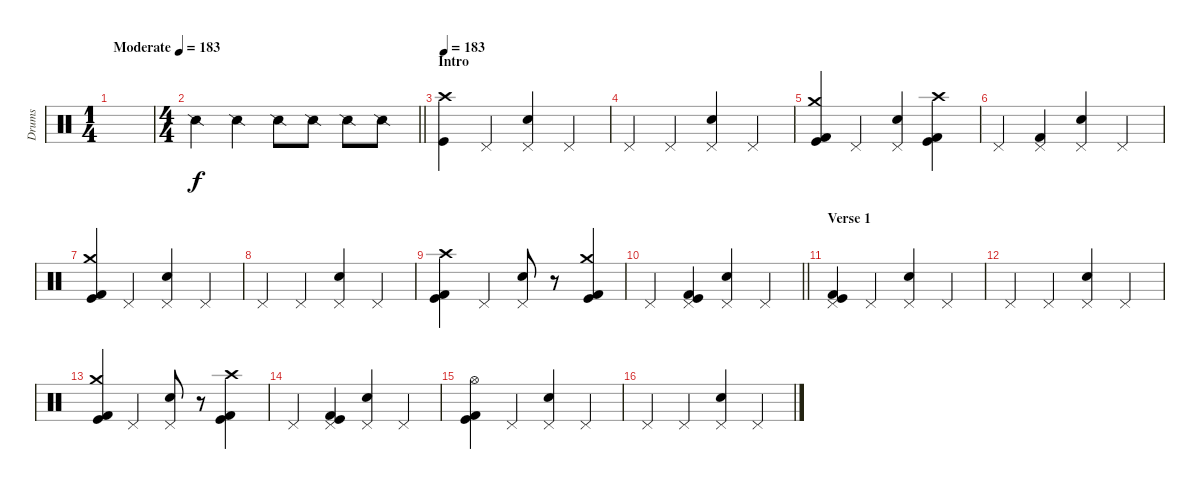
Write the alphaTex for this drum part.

\track ("Drums" "Drums") {instrument percussion}
\staff
\articulation defaults
\ts (1 4)
\tempo (183 "Moderate")
\clef neutral
\ks c
|
\ts (4 4)
\barLineRight lightlight "Snare (side stick) 2".4 "Snare (side stick) 2".4 "Snare (side stick) 2".8 "Snare (side stick) 2".8 "Snare (side stick) 2".8 "Snare (side stick) 2".8
|
\section ("" "Intro")
\tempo 183
("Crash high (hit)" "Kick (hit)").4 "Pedal Hi-Hat (hit)".4 ("Pedal Hi-Hat (hit)" "Snare (hit) 2").4 "Pedal Hi-Hat (hit)".4 |
"Pedal Hi-Hat (hit)".4 "Pedal Hi-Hat (hit)".4 ("Pedal Hi-Hat (hit)" "Snare (hit) 2").4 "Pedal Hi-Hat (hit)".4 |
("Crash medium (hit)" "Kick (hit)" "Kick (hit) 2").4 "Pedal Hi-Hat (hit)".4 ("Pedal Hi-Hat (hit)" "Snare (hit) 2").4 ("Crash high (hit)" "Kick (hit)" "Kick (hit) 2").4 |
"Pedal Hi-Hat (hit)".4 ("Pedal Hi-Hat (hit)" "Kick (hit) 2").4 ("Pedal Hi-Hat (hit)" "Snare (hit) 2").4 "Pedal Hi-Hat (hit)".4 |
("Crash medium (hit)" "Kick (hit)" "Kick (hit) 2").4 "Pedal Hi-Hat (hit)".4 ("Pedal Hi-Hat (hit)" "Snare (hit) 2").4 "Pedal Hi-Hat (hit)".4 |
"Pedal Hi-Hat (hit)".4 "Pedal Hi-Hat (hit)".4 ("Pedal Hi-Hat (hit)" "Snare (hit) 2").4 "Pedal Hi-Hat (hit)".4 |
("Crash high (hit)" "Kick (hit)" "Kick (hit) 2").4 "Pedal Hi-Hat (hit)".4 ("Pedal Hi-Hat (hit)" "Snare (hit) 2").8 r.8 ("Crash medium (hit)" "Kick (hit)" "Kick (hit) 2").4 |
\barLineRight lightlight "Pedal Hi-Hat (hit)".4
("Pedal Hi-Hat (hit)" "Kick (hit)" "Kick (hit) 2").4 ("Pedal Hi-Hat (hit)" "Snare (hit) 2").4 "Pedal Hi-Hat (hit)".4 |
\section ("" "Verse 1")
("Pedal Hi-Hat (hit)" "Kick (hit)" "Kick (hit) 2").4 "Pedal Hi-Hat (hit)".4 ("Pedal Hi-Hat (hit)" "Snare (hit) 2").4 "Pedal Hi-Hat (hit)".4 |
"Pedal Hi-Hat (hit)".4 "Pedal Hi-Hat (hit)".4 ("Pedal Hi-Hat (hit)" "Snare (hit) 2").4 "Pedal Hi-Hat (hit)".4 |
("Crash medium (hit)" "Kick (hit)" "Kick (hit) 2").4 "Pedal Hi-Hat (hit)".4 ("Pedal Hi-Hat (hit)" "Snare (hit) 2").8 r.8 ("Crash high (hit)" "Kick (hit)" "Kick (hit) 2").4 |
"Pedal Hi-Hat (hit)".4 ("Pedal Hi-Hat (hit)" "Kick (hit)" "Kick (hit) 2").4 ("Pedal Hi-Hat (hit)" "Snare (hit) 2").4 "Pedal Hi-Hat (hit)".4 |
("Hi-Hat (open)" "Kick (hit)" "Kick (hit) 2").4 "Pedal Hi-Hat (hit)".4 ("Pedal Hi-Hat (hit)" "Snare (hit) 2").4 "Pedal Hi-Hat (hit)".4 |
"Pedal Hi-Hat (hit)".4 "Pedal Hi-Hat (hit)".4 ("Pedal Hi-Hat (hit)" "Snare (hit) 2").4 "Pedal Hi-Hat (hit)".4
